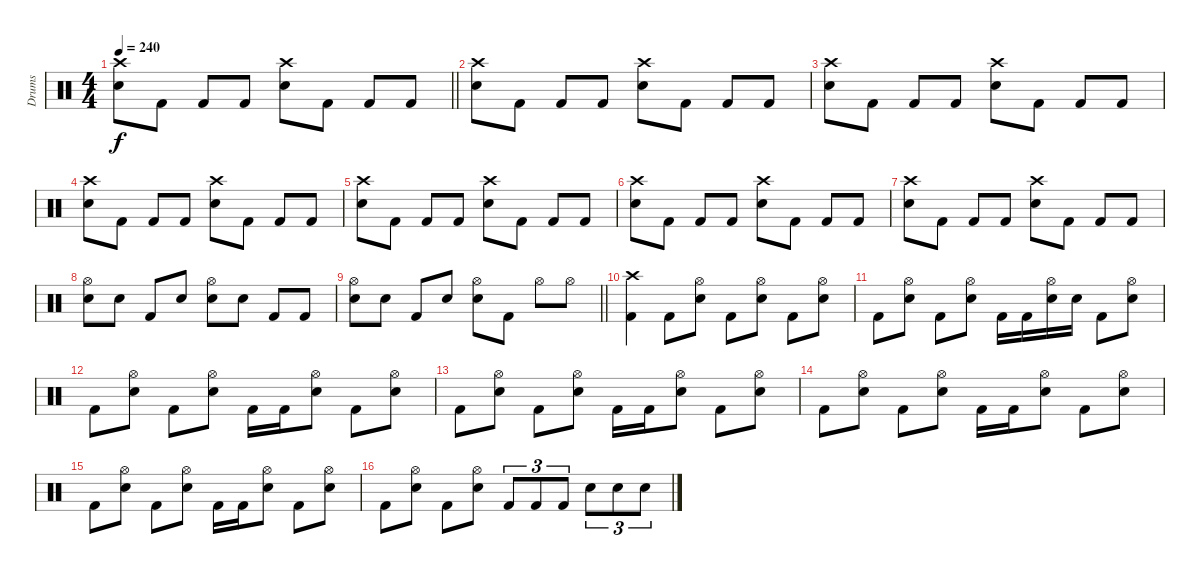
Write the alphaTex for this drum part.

\track ("Drums" "Drums") {instrument percussion}
\staff {score}
\articulation defaults
\ts (4 4)
\tempo 240
\clef neutral
\barLineRight lightlight
\ks c
("Crash high (hit)" "Electric Snare (hit)").8{dy f} "Kick (hit) 2".8 "Kick (hit) 2".8 "Kick (hit) 2".8 ("Crash high (hit)" "Electric Snare (hit)").8 "Kick (hit) 2".8 "Kick (hit) 2".8 "Kick (hit) 2".8 |
("Crash high (hit)" "Electric Snare (hit)").8 "Kick (hit) 2".8 "Kick (hit) 2".8 "Kick (hit) 2".8 ("Crash high (hit)" "Electric Snare (hit)").8 "Kick (hit) 2".8 "Kick (hit) 2".8 "Kick (hit) 2".8 |
("Crash high (hit)" "Electric Snare (hit)").8 "Kick (hit) 2".8 "Kick (hit) 2".8 "Kick (hit) 2".8 ("Crash high (hit)" "Electric Snare (hit)").8 "Kick (hit) 2".8 "Kick (hit) 2".8 "Kick (hit) 2".8 |
("Crash high (hit)" "Electric Snare (hit)").8 "Kick (hit) 2".8 "Kick (hit) 2".8 "Kick (hit) 2".8 ("Crash high (hit)" "Electric Snare (hit)").8 "Kick (hit) 2".8 "Kick (hit) 2".8 "Kick (hit) 2".8 |
("Crash high (hit)" "Electric Snare (hit)").8 "Kick (hit) 2".8 "Kick (hit) 2".8 "Kick (hit) 2".8 ("Crash high (hit)" "Electric Snare (hit)").8 "Kick (hit) 2".8 "Kick (hit) 2".8 "Kick (hit) 2".8 |
("Crash high (hit)" "Electric Snare (hit)").8 "Kick (hit) 2".8 "Kick (hit) 2".8 "Kick (hit) 2".8 ("Crash high (hit)" "Electric Snare (hit)").8 "Kick (hit) 2".8 "Kick (hit) 2".8 "Kick (hit) 2".8 |
("Crash high (hit)" "Electric Snare (hit)").8 "Kick (hit) 2".8 "Kick (hit) 2".8 "Kick (hit) 2".8 ("Crash high (hit)" "Electric Snare (hit)").8 "Kick (hit) 2".8 "Kick (hit) 2".8 "Kick (hit) 2".8 |
("Hi-Hat (open)" "Electric Snare (hit)").8 "Electric Snare (hit)".8 "Kick (hit) 2".8 "Electric Snare (hit)".8 ("Hi-Hat (open)" "Electric Snare (hit)").8 "Electric Snare (hit)".8 "Kick (hit) 2".8 "Kick (hit) 2".8 |
\barLineRight lightlight
("Hi-Hat (open)" "Electric Snare (hit)").8 "Electric Snare (hit)".8 "Kick (hit) 2".8 "Electric Snare (hit)".8 ("Hi-Hat (open)" "Electric Snare (hit)").8 "Kick (hit) 2".8 "Hi-Hat (open)".8 "Hi-Hat (open)".8 |
("Crash high (hit)" "Kick (hit) 2").4 "Kick (hit) 2".8 ("Hi-Hat (open)" "Electric Snare (hit)").8 "Kick (hit) 2".8 ("Hi-Hat (open)" "Electric Snare (hit)").8 "Kick (hit) 2".8 ("Hi-Hat (open)" "Electric Snare (hit)").8 |
"Kick (hit) 2".8 ("Hi-Hat (open)" "Electric Snare (hit)").8 "Kick (hit) 2".8 ("Hi-Hat (open)" "Electric Snare (hit)").8 "Kick (hit) 2".16 "Kick (hit) 2".16 ("Hi-Hat (open)" "Electric Snare (hit)").16 "Electric Snare (hit)".16 "Kick (hit) 2".8 ("Hi-Hat (open)" "Electric Snare (hit)").8 |
"Kick (hit) 2".8 ("Hi-Hat (open)" "Electric Snare (hit)").8 "Kick (hit) 2".8 ("Hi-Hat (open)" "Electric Snare (hit)").8 "Kick (hit) 2".16 "Kick (hit) 2".16 ("Hi-Hat (open)" "Electric Snare (hit)").8 "Kick (hit) 2".8 ("Hi-Hat (open)" "Electric Snare (hit)").8 |
"Kick (hit) 2".8 ("Hi-Hat (open)" "Electric Snare (hit)").8 "Kick (hit) 2".8 ("Hi-Hat (open)" "Electric Snare (hit)").8 "Kick (hit) 2".16 "Kick (hit) 2".16 ("Hi-Hat (open)" "Electric Snare (hit)").8 "Kick (hit) 2".8 ("Hi-Hat (open)" "Electric Snare (hit)").8 |
"Kick (hit) 2".8 ("Hi-Hat (open)" "Electric Snare (hit)").8 "Kick (hit) 2".8 ("Hi-Hat (open)" "Electric Snare (hit)").8 "Kick (hit) 2".16 "Kick (hit) 2".16 ("Hi-Hat (open)" "Electric Snare (hit)").8 "Kick (hit) 2".8 ("Hi-Hat (open)" "Electric Snare (hit)").8 |
"Kick (hit) 2".8 ("Hi-Hat (open)" "Electric Snare (hit)").8 "Kick (hit) 2".8 ("Hi-Hat (open)" "Electric Snare (hit)").8 "Kick (hit) 2".16 "Kick (hit) 2".16 ("Hi-Hat (open)" "Electric Snare (hit)").8 "Kick (hit) 2".8 ("Hi-Hat (open)" "Electric Snare (hit)").8 |
"Kick (hit) 2".8 ("Hi-Hat (open)" "Electric Snare (hit)").8 "Kick (hit) 2".8 ("Hi-Hat (open)" "Electric Snare (hit)").8 "Kick (hit) 2".8{tu (3 2)} "Kick (hit) 2".8{tu (3 2)} "Kick (hit) 2".8{tu (3 2)} "Electric Snare (hit)".8{tu (3 2)} "Electric Snare (hit)".8{tu (3 2)} "Electric Snare (hit)".8{tu (3 2)}
